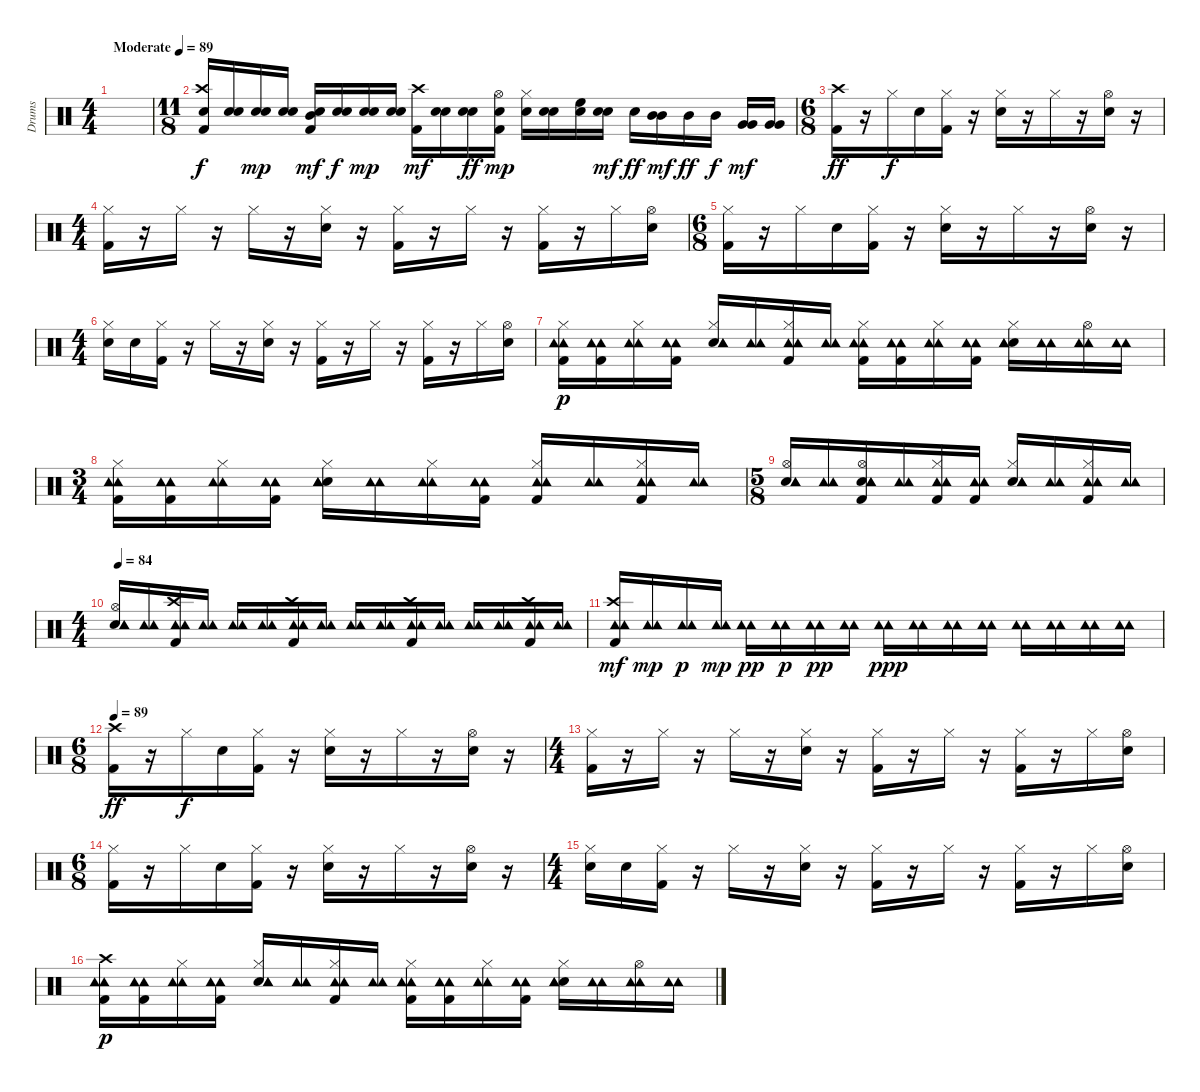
\track ("Drums" "Drums") {instrument percussion}
\staff {score}
\articulation defaults
\ts (4 4)
\tempo (89 "Moderate")
\clef neutral
\ks c
|
\ts (11 8)
("Kick (hit) 2" "Crash high (hit)" "Snare (hit) 2").16 ("Snare (hit) 2" "Snare (hit) 2").16{dy f} ("Snare (hit) 2" "Snare (hit) 2").16{dy mp} ("Snare (hit) 2" "Snare (hit) 2").16 ("Kick (hit) 2" "Mid Tom (hit)" "Snare (hit) 2").16{dy mf} ("Snare (hit) 2" "Snare (hit) 2").16{dy f} ("Snare (hit) 2" "Snare (hit) 2").16{dy mp} ("Snare (hit) 2" "Snare (hit) 2").16 ("Kick (hit) 2" "Crash high (hit)").16{dy mf} ("Snare (hit) 2" "Snare (hit) 2").16 ("Snare (hit) 2" "Snare (hit) 2").16{dy ff} ("Kick (hit) 2" "Snare (hit) 2" "Hi-Hat (open)").16{dy mp} ("Hi-Hat (closed)" "Snare (hit) 2").16 ("Snare (hit) 2" "Snare (hit) 2").16 ("High Floor Tom (hit)" "Snare (hit) 2").16 ("Snare (hit) 2" "Snare (hit) 2").16{dy mf} "Snare (hit) 2".16{dy ff} ("Mid Tom (hit)" "Mid Tom (hit)").16{dy mf} "Mid Tom (hit)".16{dy ff} "Mid Tom (hit)".16{dy f} ("Very Low Tom (hit)" "Very Low Tom (hit)").16{dy mf} ("Very Low Tom (hit)" "Very Low Tom (hit)").16 |
\ts (6 8)
("Kick (hit) 2" "Crash high (hit)").16{dy ff} r.16 "Hi-Hat (closed)".16{dy f} "Snare (hit) 2".16 ("Kick (hit) 2" "Hi-Hat (closed)").16 r.16 ("Snare (hit) 2" "Hi-Hat (closed)").16 r.16 "Hi-Hat (closed)".16 r.16 ("Snare (hit) 2" "Hi-Hat (open)").16 r.16 |
\ts (4 4)
("Kick (hit) 2" "Hi-Hat (closed)").16 r.16 "Hi-Hat (closed)".16 r.16 "Hi-Hat (closed)".16 r.16 ("Snare (hit) 2" "Hi-Hat (closed)").16 r.16 ("Kick (hit) 2" "Hi-Hat (closed)").16 r.16 "Hi-Hat (closed)".16 r.16 ("Kick (hit) 2" "Hi-Hat (closed)").16 r.16 "Hi-Hat (closed)".16 ("Snare (hit) 2" "Hi-Hat (open)").16 |
\ts (6 8)
("Kick (hit) 2" "Hi-Hat (closed)").16 r.16 "Hi-Hat (closed)".16 "Snare (hit) 2".16 ("Kick (hit) 2" "Hi-Hat (closed)").16 r.16 ("Snare (hit) 2" "Hi-Hat (closed)").16 r.16 "Hi-Hat (closed)".16 r.16 ("Snare (hit) 2" "Hi-Hat (open)").16 r.16 |
\ts (4 4)
("Snare (hit) 2" "Hi-Hat (closed)").16 "Snare (hit) 2".16 ("Kick (hit) 2" "Hi-Hat (closed)").16 r.16 "Hi-Hat (closed)".16 r.16 ("Snare (hit) 2" "Hi-Hat (closed)").16 r.16 ("Kick (hit) 2" "Hi-Hat (closed)").16 r.16 "Hi-Hat (closed)".16 r.16 ("Kick (hit) 2" "Hi-Hat (closed)").16 r.16 "Hi-Hat (closed)".16 ("Snare (hit) 2" "Hi-Hat (open)").16 |
("Kick (hit) 2" "Hi-Hat (closed)" "Tambourine (hit)" "Tambourine (hit)").16{dy p} ("Kick (hit) 2" "Tambourine (hit)" "Tambourine (hit)").16 ("Hi-Hat (closed)" "Tambourine (hit)" "Tambourine (hit)").16 ("Kick (hit) 2" "Tambourine (hit)" "Tambourine (hit)").16 ("Snare (hit) 2" "Hi-Hat (closed)" "Tambourine (hit)" "Tambourine (hit)").16 ("Tambourine (hit)" "Tambourine (hit)").16 ("Kick (hit) 2" "Hi-Hat (closed)" "Tambourine (hit)" "Tambourine (hit)").16 ("Tambourine (hit)" "Tambourine (hit)").16 ("Kick (hit) 2" "Hi-Hat (closed)" "Tambourine (hit)" "Tambourine (hit)").16 ("Kick (hit) 2" "Tambourine (hit)" "Tambourine (hit)").16 ("Hi-Hat (closed)" "Tambourine (hit)" "Tambourine (hit)").16 ("Kick (hit) 2" "Tambourine (hit)" "Tambourine (hit)").16 ("Snare (hit) 2" "Hi-Hat (closed)" "Tambourine (hit)" "Tambourine (hit)").16 ("Tambourine (hit)" "Tambourine (hit)").16 ("Hi-Hat (open)" "Tambourine (hit)" "Tambourine (hit)").16 ("Tambourine (hit)" "Tambourine (hit)").16 |
\ts (3 4)
("Kick (hit) 2" "Hi-Hat (closed)" "Tambourine (hit)" "Tambourine (hit)").16 ("Kick (hit) 2" "Tambourine (hit)" "Tambourine (hit)").16 ("Hi-Hat (closed)" "Tambourine (hit)" "Tambourine (hit)").16 ("Kick (hit) 2" "Tambourine (hit)" "Tambourine (hit)").16 ("Snare (hit) 2" "Hi-Hat (closed)" "Tambourine (hit)" "Tambourine (hit)").16 ("Tambourine (hit)" "Tambourine (hit)").16 ("Hi-Hat (closed)" "Tambourine (hit)" "Tambourine (hit)").16 ("Kick (hit) 2" "Tambourine (hit)" "Tambourine (hit)").16 ("Kick (hit) 2" "Hi-Hat (closed)" "Tambourine (hit)" "Tambourine (hit)").16 ("Tambourine (hit)" "Tambourine (hit)").16 ("Kick (hit) 2" "Hi-Hat (closed)" "Tambourine (hit)" "Tambourine (hit)").16 ("Tambourine (hit)" "Tambourine (hit)").16 |
\ts (5 8)
("Snare (hit) 2" "Hi-Hat (open)" "Tambourine (hit)" "Tambourine (hit)").16 ("Tambourine (hit)" "Tambourine (hit)").16 ("Kick (hit) 2" "Snare (hit) 2" "Hi-Hat (open)" "Tambourine (hit)" "Tambourine (hit)").16 ("Tambourine (hit)" "Tambourine (hit)").16 ("Kick (hit) 2" "Hi-Hat (closed)" "Tambourine (hit)" "Tambourine (hit)").16 ("Kick (hit) 2" "Tambourine (hit)" "Tambourine (hit)").16 ("Snare (hit) 2" "Hi-Hat (closed)" "Tambourine (hit)" "Tambourine (hit)").16 ("Tambourine (hit)" "Tambourine (hit)").16 ("Kick (hit) 2" "Hi-Hat (closed)" "Tambourine (hit)" "Tambourine (hit)").16 ("Tambourine (hit)" "Tambourine (hit)").16 |
\ts (4 4)
\tempo 84
("Snare (hit) 2" "Hi-Hat (open)" "Tambourine (hit)" "Tambourine (hit)").16 ("Tambourine (hit)" "Tambourine (hit)").16 ("Kick (hit) 2" "Crash high (hit)" "Tambourine (hit)" "Tambourine (hit)").16 ("Tambourine (hit)" "Tambourine (hit)").16 ("Tambourine (hit)" "Tambourine (hit)").16 ("Tambourine (hit)" "Tambourine (hit)").16 ("Kick (hit) 2" "Crash high (hit)" "Tambourine (hit)" "Tambourine (hit)").16 ("Tambourine (hit)" "Tambourine (hit)").16 ("Tambourine (hit)" "Tambourine (hit)").16 ("Tambourine (hit)" "Tambourine (hit)").16 ("Kick (hit) 2" "Crash high (hit)" "Tambourine (hit)" "Tambourine (hit)").16 ("Tambourine (hit)" "Tambourine (hit)").16 ("Tambourine (hit)" "Tambourine (hit)").16 ("Tambourine (hit)" "Tambourine (hit)").16 ("Kick (hit) 2" "Crash high (hit)" "Tambourine (hit)" "Tambourine (hit)").16 ("Tambourine (hit)" "Tambourine (hit)").16 |
("Kick (hit) 2" "Crash high (hit)" "Tambourine (hit)" "Tambourine (hit)").16{dy mf} ("Tambourine (hit)" "Tambourine (hit)").16{dy mp} ("Tambourine (hit)" "Tambourine (hit)").16{dy p} ("Tambourine (hit)" "Tambourine (hit)").16{dy mp} ("Tambourine (hit)" "Tambourine (hit)").16{dy pp} ("Tambourine (hit)" "Tambourine (hit)").16{dy p} ("Tambourine (hit)" "Tambourine (hit)").16{dy pp} ("Tambourine (hit)" "Tambourine (hit)").16 ("Tambourine (hit)" "Tambourine (hit)").16{dy ppp} ("Tambourine (hit)" "Tambourine (hit)").16 ("Tambourine (hit)" "Tambourine (hit)").16 ("Tambourine (hit)" "Tambourine (hit)").16 ("Tambourine (hit)" "Tambourine (hit)").16 ("Tambourine (hit)" "Tambourine (hit)").16 ("Tambourine (hit)" "Tambourine (hit)").16 ("Tambourine (hit)" "Tambourine (hit)").16 |
\ts (6 8)
\tempo 89
("Kick (hit) 2" "Crash high (hit)").16{dy ff} r.16 "Hi-Hat (closed)".16{dy f} "Snare (hit) 2".16 ("Kick (hit) 2" "Hi-Hat (closed)").16 r.16 ("Snare (hit) 2" "Hi-Hat (closed)").16 r.16 "Hi-Hat (closed)".16 r.16 ("Snare (hit) 2" "Hi-Hat (open)").16 r.16 |
\ts (4 4)
("Kick (hit) 2" "Hi-Hat (closed)").16 r.16 "Hi-Hat (closed)".16 r.16 "Hi-Hat (closed)".16 r.16 ("Snare (hit) 2" "Hi-Hat (closed)").16 r.16 ("Kick (hit) 2" "Hi-Hat (closed)").16 r.16 "Hi-Hat (closed)".16 r.16 ("Kick (hit) 2" "Hi-Hat (closed)").16 r.16 "Hi-Hat (closed)".16 ("Snare (hit) 2" "Hi-Hat (open)").16 |
\ts (6 8)
("Kick (hit) 2" "Hi-Hat (closed)").16 r.16 "Hi-Hat (closed)".16 "Snare (hit) 2".16 ("Kick (hit) 2" "Hi-Hat (closed)").16 r.16 ("Snare (hit) 2" "Hi-Hat (closed)").16 r.16 "Hi-Hat (closed)".16 r.16 ("Snare (hit) 2" "Hi-Hat (open)").16 r.16 |
\ts (4 4)
("Snare (hit) 2" "Hi-Hat (closed)").16 "Snare (hit) 2".16 ("Kick (hit) 2" "Hi-Hat (closed)").16 r.16 "Hi-Hat (closed)".16 r.16 ("Snare (hit) 2" "Hi-Hat (closed)").16 r.16 ("Kick (hit) 2" "Hi-Hat (closed)").16 r.16 "Hi-Hat (closed)".16 r.16 ("Kick (hit) 2" "Hi-Hat (closed)").16 r.16 "Hi-Hat (closed)".16 ("Snare (hit) 2" "Hi-Hat (open)").16 |
("Kick (hit) 2" "Crash high (hit)" "Tambourine (hit)" "Tambourine (hit)").16{dy p} ("Kick (hit) 2" "Tambourine (hit)" "Tambourine (hit)").16 ("Hi-Hat (closed)" "Tambourine (hit)" "Tambourine (hit)").16 ("Kick (hit) 2" "Tambourine (hit)" "Tambourine (hit)").16 ("Snare (hit) 2" "Hi-Hat (closed)" "Tambourine (hit)" "Tambourine (hit)").16 ("Tambourine (hit)" "Tambourine (hit)").16 ("Kick (hit) 2" "Hi-Hat (closed)" "Tambourine (hit)" "Tambourine (hit)").16 ("Tambourine (hit)" "Tambourine (hit)").16 ("Kick (hit) 2" "Hi-Hat (closed)" "Tambourine (hit)" "Tambourine (hit)").16 ("Kick (hit) 2" "Tambourine (hit)" "Tambourine (hit)").16 ("Hi-Hat (closed)" "Tambourine (hit)" "Tambourine (hit)").16 ("Kick (hit) 2" "Tambourine (hit)" "Tambourine (hit)").16 ("Snare (hit) 2" "Hi-Hat (closed)" "Tambourine (hit)" "Tambourine (hit)").16 ("Tambourine (hit)" "Tambourine (hit)").16 ("Hi-Hat (open)" "Tambourine (hit)" "Tambourine (hit)").16 ("Tambourine (hit)" "Tambourine (hit)").16
